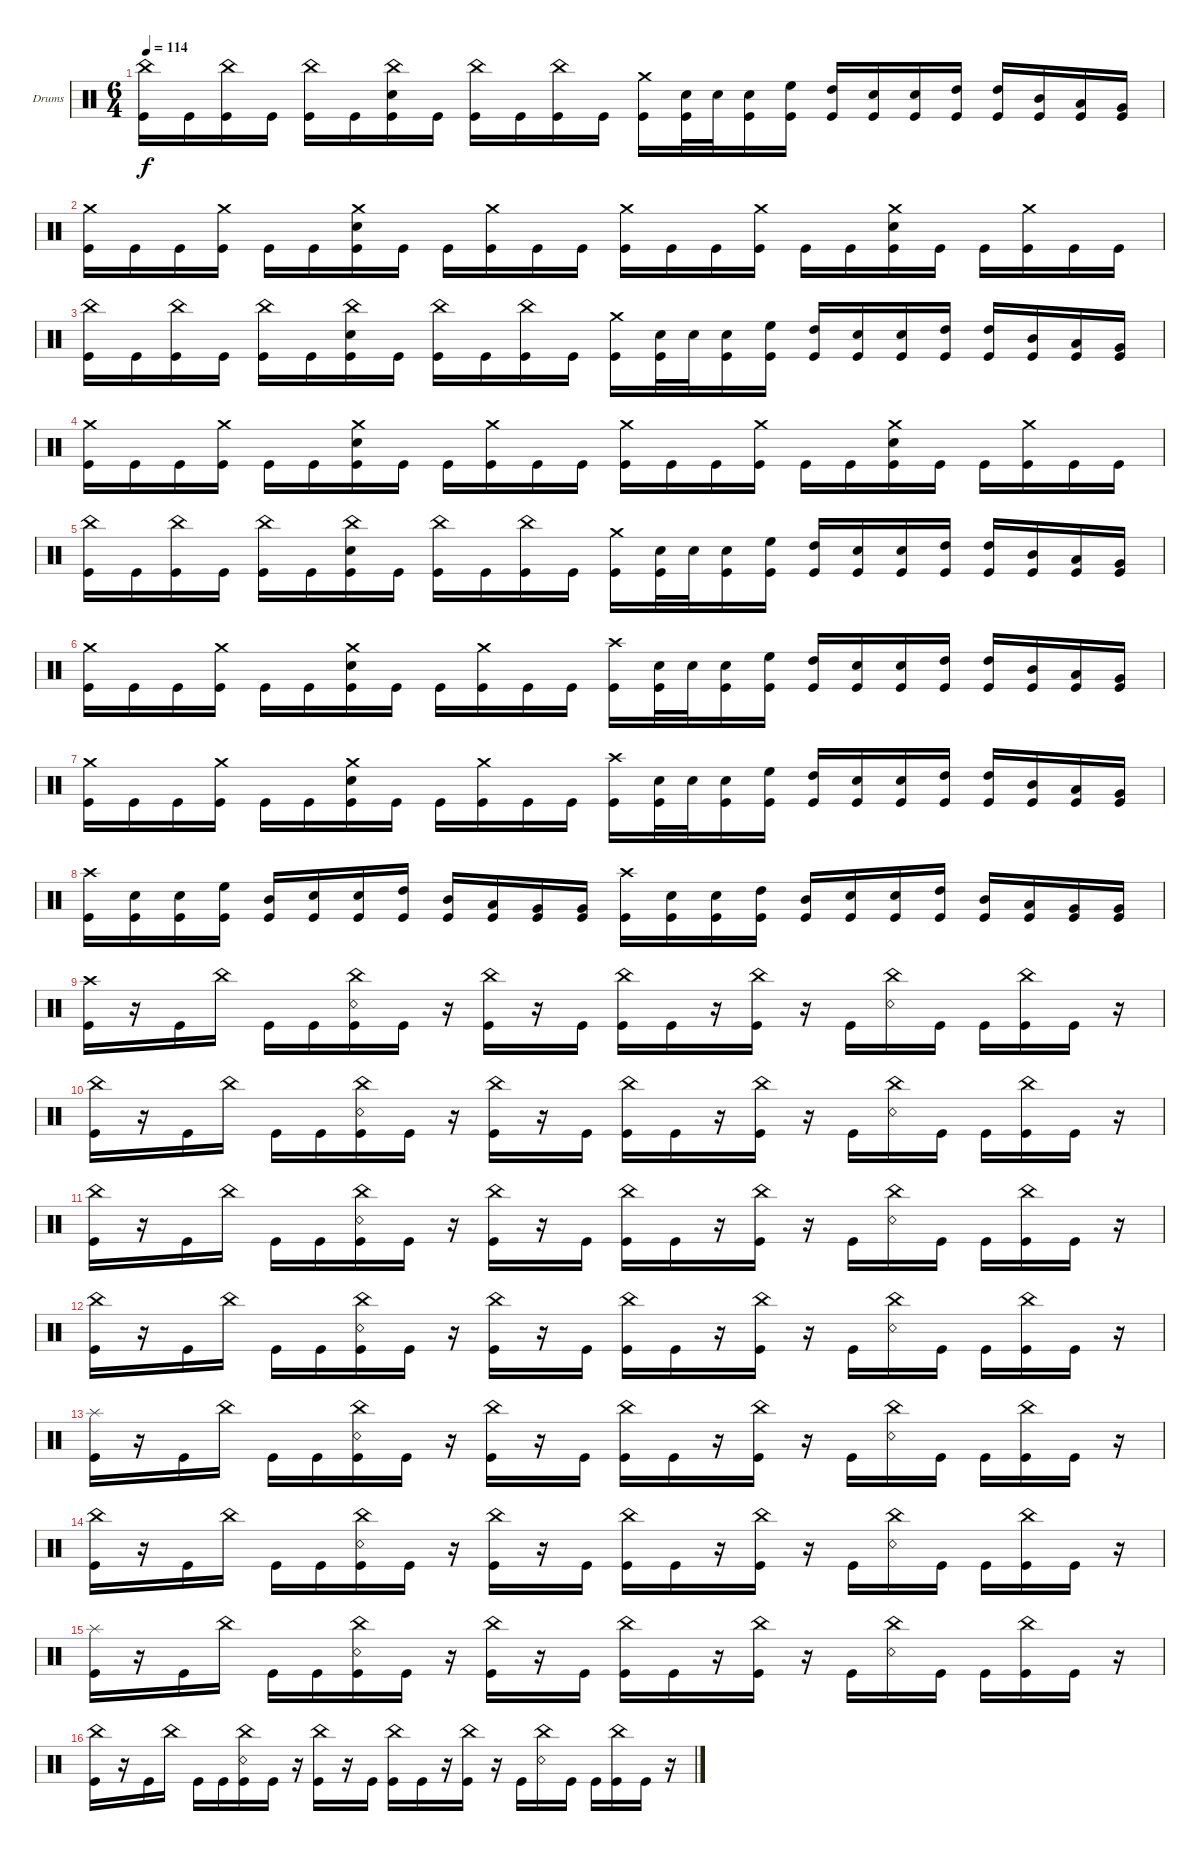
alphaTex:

\bracketExtendMode groupsimilarinstruments
\firstSystemTrackNameOrientation horizontal
\otherSystemsTrackNameOrientation horizontal
\track ("Drumkit" "Drums") {instrument percussion}
\staff {score}
\articulation defaults
\ts (6 4)
\tempo 114
\clef neutral
\ks c
("China (hit)" "Kick (hit)").16{dy f} "Kick (hit)".16 ("China (hit)" "Kick (hit)").16 "Kick (hit)".16 ("China (hit)" "Kick (hit)").16 "Kick (hit)".16 ("China (hit)" "Snare (hit) 2" "Kick (hit)").16 "Kick (hit)".16 ("China (hit)" "Kick (hit)").16 "Kick (hit)".16 ("China (hit)" "Kick (hit)").16 "Kick (hit)".16 ("Crash medium (hit)" "Kick (hit)").16 ("Snare (hit) 2" "Kick (hit)").32 "Snare (hit) 2".32 ("Snare (hit) 2" "Kick (hit)").16 ("High Floor Tom (hit)" "Kick (hit)").16 ("High Tom (hit)" "Kick (hit)").16 ("Snare (hit) 2" "Kick (hit)").16 ("Snare (hit) 2" "Kick (hit)").16 ("High Tom (hit)" "Kick (hit)").16 ("High Tom (hit)" "Kick (hit)").16 ("Mid Tom (hit)" "Kick (hit)").16 ("Low Tom (hit)" "Kick (hit)").16 ("Very Low Tom (hit)" "Kick (hit)").16 |
("Crash medium (hit)" "Kick (hit)").16 "Kick (hit)".16 "Kick (hit)".16 ("Crash medium (hit)" "Kick (hit)").16 "Kick (hit)".16 "Kick (hit)".16 ("Crash medium (hit)" "Snare (hit) 2" "Kick (hit)").16 "Kick (hit)".16 "Kick (hit)".16 ("Crash medium (hit)" "Kick (hit)").16 "Kick (hit)".16 "Kick (hit)".16 ("Crash medium (hit)" "Kick (hit)").16 "Kick (hit)".16 "Kick (hit)".16 ("Crash medium (hit)" "Kick (hit)").16 "Kick (hit)".16 "Kick (hit)".16 ("Crash medium (hit)" "Snare (hit) 2" "Kick (hit)").16 "Kick (hit)".16 "Kick (hit)".16 ("Crash medium (hit)" "Kick (hit)").16 "Kick (hit)".16 "Kick (hit)".16 |
("China (hit)" "Kick (hit)").16 "Kick (hit)".16 ("China (hit)" "Kick (hit)").16 "Kick (hit)".16 ("China (hit)" "Kick (hit)").16 "Kick (hit)".16 ("China (hit)" "Snare (hit) 2" "Kick (hit)").16 "Kick (hit)".16 ("China (hit)" "Kick (hit)").16 "Kick (hit)".16 ("China (hit)" "Kick (hit)").16 "Kick (hit)".16 ("Crash medium (hit)" "Kick (hit)").16 ("Snare (hit) 2" "Kick (hit)").32 "Snare (hit) 2".32 ("Snare (hit) 2" "Kick (hit)").16 ("High Floor Tom (hit)" "Kick (hit)").16 ("High Tom (hit)" "Kick (hit)").16 ("Snare (hit) 2" "Kick (hit)").16 ("Snare (hit) 2" "Kick (hit)").16 ("High Tom (hit)" "Kick (hit)").16 ("High Tom (hit)" "Kick (hit)").16 ("Mid Tom (hit)" "Kick (hit)").16 ("Low Tom (hit)" "Kick (hit)").16 ("Very Low Tom (hit)" "Kick (hit)").16 |
("Crash medium (hit)" "Kick (hit)").16 "Kick (hit)".16 "Kick (hit)".16 ("Crash medium (hit)" "Kick (hit)").16 "Kick (hit)".16 "Kick (hit)".16 ("Crash medium (hit)" "Snare (hit) 2" "Kick (hit)").16 "Kick (hit)".16 "Kick (hit)".16 ("Crash medium (hit)" "Kick (hit)").16 "Kick (hit)".16 "Kick (hit)".16 ("Crash medium (hit)" "Kick (hit)").16 "Kick (hit)".16 "Kick (hit)".16 ("Crash medium (hit)" "Kick (hit)").16 "Kick (hit)".16 "Kick (hit)".16 ("Crash medium (hit)" "Snare (hit) 2" "Kick (hit)").16 "Kick (hit)".16 "Kick (hit)".16 ("Crash medium (hit)" "Kick (hit)").16 "Kick (hit)".16 "Kick (hit)".16 |
("China (hit)" "Kick (hit)").16 "Kick (hit)".16 ("China (hit)" "Kick (hit)").16 "Kick (hit)".16 ("China (hit)" "Kick (hit)").16 "Kick (hit)".16 ("China (hit)" "Snare (hit) 2" "Kick (hit)").16 "Kick (hit)".16 ("China (hit)" "Kick (hit)").16 "Kick (hit)".16 ("China (hit)" "Kick (hit)").16 "Kick (hit)".16 ("Crash medium (hit)" "Kick (hit)").16 ("Snare (hit) 2" "Kick (hit)").32 "Snare (hit) 2".32 ("Snare (hit) 2" "Kick (hit)").16 ("High Floor Tom (hit)" "Kick (hit)").16 ("High Tom (hit)" "Kick (hit)").16 ("Snare (hit) 2" "Kick (hit)").16 ("Snare (hit) 2" "Kick (hit)").16 ("High Tom (hit)" "Kick (hit)").16 ("High Tom (hit)" "Kick (hit)").16 ("Mid Tom (hit)" "Kick (hit)").16 ("Low Tom (hit)" "Kick (hit)").16 ("Very Low Tom (hit)" "Kick (hit)").16 |
("Crash medium (hit)" "Kick (hit)").16 "Kick (hit)".16 "Kick (hit)".16 ("Crash medium (hit)" "Kick (hit)").16 "Kick (hit)".16 "Kick (hit)".16 ("Crash medium (hit)" "Snare (hit) 2" "Kick (hit)").16 "Kick (hit)".16 "Kick (hit)".16 ("Crash medium (hit)" "Kick (hit)").16 "Kick (hit)".16 "Kick (hit)".16 ("Crash high (hit)" "Kick (hit)").16 ("Snare (hit) 2" "Kick (hit)").32 "Snare (hit) 2".32 ("Snare (hit) 2" "Kick (hit)").16 ("High Floor Tom (hit)" "Kick (hit)").16 ("High Tom (hit)" "Kick (hit)").16 ("Snare (hit) 2" "Kick (hit)").16 ("Snare (hit) 2" "Kick (hit)").16 ("High Tom (hit)" "Kick (hit)").16 ("High Tom (hit)" "Kick (hit)").16 ("Mid Tom (hit)" "Kick (hit)").16 ("Low Tom (hit)" "Kick (hit)").16 ("Very Low Tom (hit)" "Kick (hit)").16 |
("Crash medium (hit)" "Kick (hit)").16 "Kick (hit)".16 "Kick (hit)".16 ("Crash medium (hit)" "Kick (hit)").16 "Kick (hit)".16 "Kick (hit)".16 ("Crash medium (hit)" "Snare (hit) 2" "Kick (hit)").16 "Kick (hit)".16 "Kick (hit)".16 ("Crash medium (hit)" "Kick (hit)").16 "Kick (hit)".16 "Kick (hit)".16 ("Crash high (hit)" "Kick (hit)").16 ("Snare (hit) 2" "Kick (hit)").32 "Snare (hit) 2".32 ("Snare (hit) 2" "Kick (hit)").16 ("High Floor Tom (hit)" "Kick (hit)").16 ("High Tom (hit)" "Kick (hit)").16 ("Snare (hit) 2" "Kick (hit)").16 ("Snare (hit) 2" "Kick (hit)").16 ("High Tom (hit)" "Kick (hit)").16 ("High Tom (hit)" "Kick (hit)").16 ("Mid Tom (hit)" "Kick (hit)").16 ("Low Tom (hit)" "Kick (hit)").16 ("Very Low Tom (hit)" "Kick (hit)").16 |
("Crash high (hit)" "Kick (hit)").16 ("Snare (hit) 2" "Kick (hit)").16 ("Snare (hit) 2" "Kick (hit)").16 ("High Floor Tom (hit)" "Kick (hit)").16 ("Mid Tom (hit)" "Kick (hit)").16 ("Snare (hit) 2" "Kick (hit)").16 ("Snare (hit) 2" "Kick (hit)").16 ("High Tom (hit)" "Kick (hit)").16 ("Mid Tom (hit)" "Kick (hit)").16 ("Low Tom (hit)" "Kick (hit)").16 ("Very Low Tom (hit)" "Kick (hit)").16 ("Very Low Tom (hit)" "Kick (hit)").16 ("Crash high (hit)" "Kick (hit)").16 ("Snare (hit) 2" "Kick (hit)").16 ("Snare (hit) 2" "Kick (hit)").16 ("High Tom (hit)" "Kick (hit)").16 ("Mid Tom (hit)" "Kick (hit)").16 ("Snare (hit) 2" "Kick (hit)").16 ("Snare (hit) 2" "Kick (hit)").16 ("High Tom (hit)" "Kick (hit)").16 ("Mid Tom (hit)" "Kick (hit)").16 ("Low Tom (hit)" "Kick (hit)").16 ("Very Low Tom (hit)" "Kick (hit)").16 ("Very Low Tom (hit)" "Kick (hit)").16 |
("Crash high (hit)" "Kick (hit)").16 r.16 "Kick (hit)".16 "China (hit)".16 "Kick (hit)".16 "Kick (hit)".16 ("China (hit)" "Snare (rim shot)" "Kick (hit)").16 "Kick (hit)".16 r.16 ("China (hit)" "Kick (hit)").16 r.16 "Kick (hit)".16 ("China (hit)" "Kick (hit)").16 "Kick (hit)".16 r.16 ("China (hit)" "Kick (hit)").16 r.16 "Kick (hit)".16 ("China (hit)" "Snare (rim shot)").16 "Kick (hit)".16 "Kick (hit)".16 ("China (hit)" "Kick (hit)").16 "Kick (hit)".16 r.16 |
("China (hit)" "Kick (hit)").16 r.16 "Kick (hit)".16 "China (hit)".16 "Kick (hit)".16 "Kick (hit)".16 ("China (hit)" "Snare (rim shot)" "Kick (hit)").16 "Kick (hit)".16 r.16 ("China (hit)" "Kick (hit)").16 r.16 "Kick (hit)".16 ("China (hit)" "Kick (hit)").16 "Kick (hit)".16 r.16 ("China (hit)" "Kick (hit)").16 r.16 "Kick (hit)".16 ("China (hit)" "Snare (rim shot)").16 "Kick (hit)".16 "Kick (hit)".16 ("China (hit)" "Kick (hit)").16 "Kick (hit)".16 r.16 |
("China (hit)" "Kick (hit)").16 r.16 "Kick (hit)".16 "China (hit)".16 "Kick (hit)".16 "Kick (hit)".16 ("China (hit)" "Snare (rim shot)" "Kick (hit)").16 "Kick (hit)".16 r.16 ("China (hit)" "Kick (hit)").16 r.16 "Kick (hit)".16 ("China (hit)" "Kick (hit)").16 "Kick (hit)".16 r.16 ("China (hit)" "Kick (hit)").16 r.16 "Kick (hit)".16 ("China (hit)" "Snare (rim shot)").16 "Kick (hit)".16 "Kick (hit)".16 ("China (hit)" "Kick (hit)").16 "Kick (hit)".16 r.16 |
("China (hit)" "Kick (hit)").16 r.16 "Kick (hit)".16 "China (hit)".16 "Kick (hit)".16 "Kick (hit)".16 ("China (hit)" "Snare (rim shot)" "Kick (hit)").16 "Kick (hit)".16 r.16 ("China (hit)" "Kick (hit)").16 r.16 "Kick (hit)".16 ("China (hit)" "Kick (hit)").16 "Kick (hit)".16 r.16 ("China (hit)" "Kick (hit)").16 r.16 "Kick (hit)".16 ("China (hit)" "Snare (rim shot)").16 "Kick (hit)".16 "Kick (hit)".16 ("China (hit)" "Kick (hit)").16 "Kick (hit)".16 r.16 |
("Splash (hit)" "Kick (hit)").16 r.16 "Kick (hit)".16 "China (hit)".16 "Kick (hit)".16 "Kick (hit)".16 ("China (hit)" "Snare (rim shot)" "Kick (hit)").16 "Kick (hit)".16 r.16 ("China (hit)" "Kick (hit)").16 r.16 "Kick (hit)".16 ("China (hit)" "Kick (hit)").16 "Kick (hit)".16 r.16 ("China (hit)" "Kick (hit)").16 r.16 "Kick (hit)".16 ("China (hit)" "Snare (rim shot)").16 "Kick (hit)".16 "Kick (hit)".16 ("China (hit)" "Kick (hit)").16 "Kick (hit)".16 r.16 |
("China (hit)" "Kick (hit)").16 r.16 "Kick (hit)".16 "China (hit)".16 "Kick (hit)".16 "Kick (hit)".16 ("China (hit)" "Snare (rim shot)" "Kick (hit)").16 "Kick (hit)".16 r.16 ("China (hit)" "Kick (hit)").16 r.16 "Kick (hit)".16 ("China (hit)" "Kick (hit)").16 "Kick (hit)".16 r.16 ("China (hit)" "Kick (hit)").16 r.16 "Kick (hit)".16 ("China (hit)" "Snare (rim shot)").16 "Kick (hit)".16 "Kick (hit)".16 ("China (hit)" "Kick (hit)").16 "Kick (hit)".16 r.16 |
("Splash (hit)" "Kick (hit)").16 r.16 "Kick (hit)".16 "China (hit)".16 "Kick (hit)".16 "Kick (hit)".16 ("China (hit)" "Snare (rim shot)" "Kick (hit)").16 "Kick (hit)".16 r.16 ("China (hit)" "Kick (hit)").16 r.16 "Kick (hit)".16 ("China (hit)" "Kick (hit)").16 "Kick (hit)".16 r.16 ("China (hit)" "Kick (hit)").16 r.16 "Kick (hit)".16 ("China (hit)" "Snare (rim shot)").16 "Kick (hit)".16 "Kick (hit)".16 ("China (hit)" "Kick (hit)").16 "Kick (hit)".16 r.16 |
("China (hit)" "Kick (hit)").16 r.16 "Kick (hit)".16 "China (hit)".16 "Kick (hit)".16 "Kick (hit)".16 ("China (hit)" "Snare (rim shot)" "Kick (hit)").16 "Kick (hit)".16 r.16 ("China (hit)" "Kick (hit)").16 r.16 "Kick (hit)".16 ("China (hit)" "Kick (hit)").16 "Kick (hit)".16 r.16 ("China (hit)" "Kick (hit)").16 r.16 "Kick (hit)".16 ("China (hit)" "Snare (rim shot)").16 "Kick (hit)".16 "Kick (hit)".16 ("China (hit)" "Kick (hit)").16 "Kick (hit)".16 r.16
